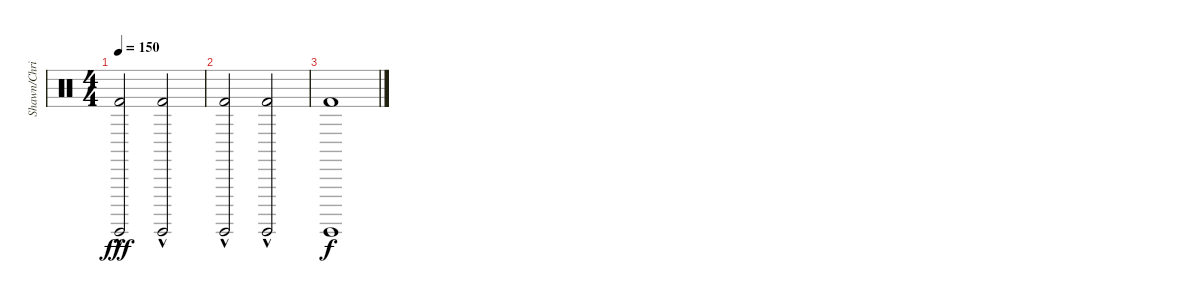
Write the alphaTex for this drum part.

\track ("Shawn/Chris" "Shawn/Chri") {instrument percussion}
\staff {score}
\articulation defaults
\ts (4 4)
\tempo 150
\clef neutral
\ks c
("Surdo (hit)"{hac} "Kick (hit) 2"{hac}).2{dy fff} ("Surdo (hit)"{hac} "Kick (hit) 2"{hac}).2 |
("Surdo (hit)"{hac} "Kick (hit) 2"{hac}).2 ("Surdo (hit)"{hac} "Kick (hit) 2"{hac}).2 |
("Surdo (hit)" "Kick (hit) 2").1{dy f}
